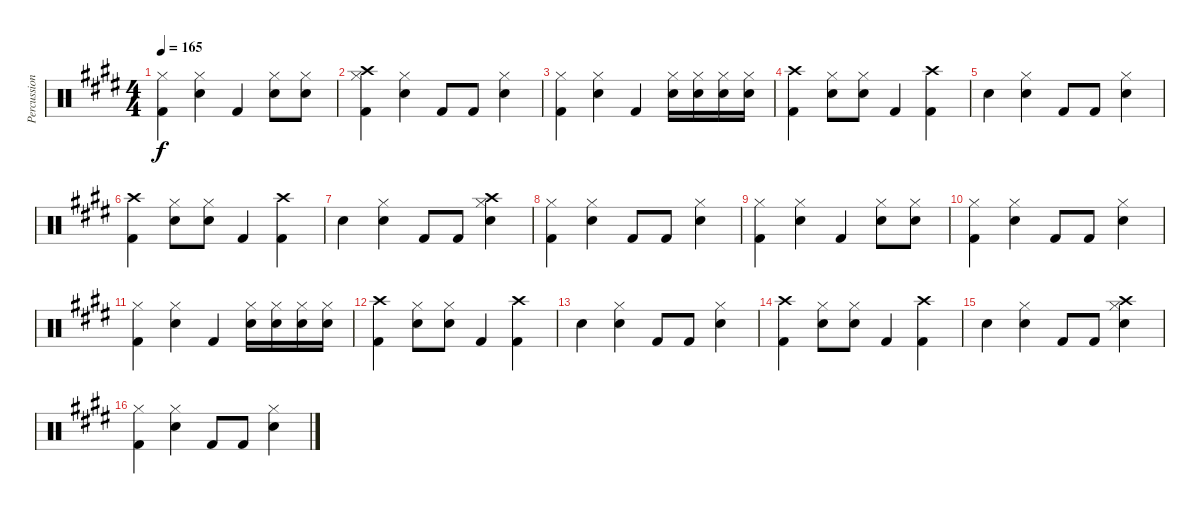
\track ("Percussioni" "Percussion") {instrument percussion}
\staff {score}
\articulation defaults
\ts (4 4)
\tempo 165
\clef neutral
\ks e
("Kick (hit) 2" "Hi-Hat (closed)").4{dy f} ("Snare (hit) 2" "Hi-Hat (closed)").4 "Kick (hit) 2".4 ("Snare (hit) 2" "Hi-Hat (closed)").8 ("Snare (hit) 2" "Hi-Hat (closed)").8 |
("Crash high (hit)" "Kick (hit) 2" "Hi-Hat (closed)").4 ("Snare (hit) 2" "Hi-Hat (closed)").4 "Kick (hit) 2".8 "Kick (hit) 2".8 ("Snare (hit) 2" "Hi-Hat (closed)").4 |
("Kick (hit) 2" "Hi-Hat (closed)").4 ("Snare (hit) 2" "Hi-Hat (closed)").4 "Kick (hit) 2".4 ("Snare (hit) 2" "Hi-Hat (closed)").16 ("Snare (hit) 2" "Hi-Hat (closed)").16 ("Snare (hit) 2" "Hi-Hat (closed)").16 ("Snare (hit) 2" "Hi-Hat (closed)").16 |
("Crash high (hit)" "Kick (hit) 2").4 ("Snare (hit) 2" "Hi-Hat (closed)").8 ("Snare (hit) 2" "Hi-Hat (closed)").8 "Kick (hit) 2".4 ("Crash high (hit)" "Kick (hit) 2").4 |
"Electric Snare (hit)".4 ("Snare (hit) 2" "Hi-Hat (closed)").4 "Kick (hit) 2".8 "Kick (hit) 2".8 ("Snare (hit) 2" "Hi-Hat (closed)").4 |
("Crash high (hit)" "Kick (hit) 2").4 ("Snare (hit) 2" "Hi-Hat (closed)").8 ("Snare (hit) 2" "Hi-Hat (closed)").8 "Kick (hit) 2".4 ("Crash high (hit)" "Kick (hit) 2").4 |
"Electric Snare (hit)".4 ("Snare (hit) 2" "Hi-Hat (closed)").4 "Kick (hit) 2".8 "Kick (hit) 2".8 ("Snare (hit) 2" "Crash high (hit)" "Hi-Hat (closed)").4 |
("Kick (hit) 2" "Hi-Hat (closed)").4 ("Snare (hit) 2" "Hi-Hat (closed)").4 "Kick (hit) 2".8 "Kick (hit) 2".8 ("Snare (hit) 2" "Hi-Hat (closed)").4 |
("Kick (hit) 2" "Hi-Hat (closed)").4 ("Snare (hit) 2" "Hi-Hat (closed)").4 "Kick (hit) 2".4 ("Snare (hit) 2" "Hi-Hat (closed)").8 ("Snare (hit) 2" "Hi-Hat (closed)").8 |
("Kick (hit) 2" "Hi-Hat (closed)").4 ("Snare (hit) 2" "Hi-Hat (closed)").4 "Kick (hit) 2".8 "Kick (hit) 2".8 ("Snare (hit) 2" "Hi-Hat (closed)").4 |
("Kick (hit) 2" "Hi-Hat (closed)").4 ("Snare (hit) 2" "Hi-Hat (closed)").4 "Kick (hit) 2".4 ("Snare (hit) 2" "Hi-Hat (closed)").16 ("Snare (hit) 2" "Hi-Hat (closed)").16 ("Snare (hit) 2" "Hi-Hat (closed)").16 ("Snare (hit) 2" "Hi-Hat (closed)").16 |
("Crash high (hit)" "Kick (hit) 2").4 ("Snare (hit) 2" "Hi-Hat (closed)").8 ("Snare (hit) 2" "Hi-Hat (closed)").8 "Kick (hit) 2".4 ("Crash high (hit)" "Kick (hit) 2").4 |
"Electric Snare (hit)".4 ("Snare (hit) 2" "Hi-Hat (closed)").4 "Kick (hit) 2".8 "Kick (hit) 2".8 ("Snare (hit) 2" "Hi-Hat (closed)").4 |
("Crash high (hit)" "Kick (hit) 2").4 ("Snare (hit) 2" "Hi-Hat (closed)").8 ("Snare (hit) 2" "Hi-Hat (closed)").8 "Kick (hit) 2".4 ("Crash high (hit)" "Kick (hit) 2").4 |
"Electric Snare (hit)".4 ("Snare (hit) 2" "Hi-Hat (closed)").4 "Kick (hit) 2".8 "Kick (hit) 2".8 ("Snare (hit) 2" "Crash high (hit)" "Hi-Hat (closed)").4 |
("Kick (hit) 2" "Hi-Hat (closed)").4 ("Snare (hit) 2" "Hi-Hat (closed)").4 "Kick (hit) 2".8 "Kick (hit) 2".8 ("Snare (hit) 2" "Hi-Hat (closed)").4
